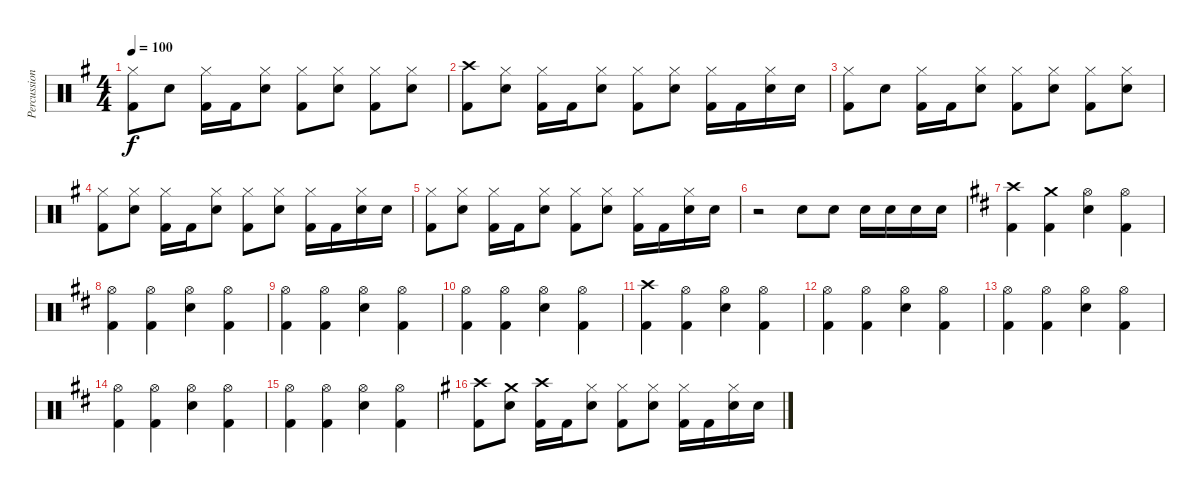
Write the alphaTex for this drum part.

\track ("Percussion" "Percussion") {instrument percussion}
\staff {score}
\articulation defaults
\ts (4 4)
\tempo 100
\clef neutral
\ks g
("Hi-Hat (closed)" "Kick (hit) 2").8{dy f} "Snare (hit) 2".8 ("Hi-Hat (closed)" "Kick (hit) 2").16 "Kick (hit) 2".16 ("Hi-Hat (closed)" "Snare (hit) 2").8 ("Hi-Hat (closed)" "Kick (hit) 2").8 ("Hi-Hat (closed)" "Snare (hit) 2").8 ("Hi-Hat (closed)" "Kick (hit) 2").8 ("Hi-Hat (closed)" "Snare (hit) 2").8 |
("Crash high (hit)" "Kick (hit) 2").8 ("Hi-Hat (closed)" "Snare (hit) 2").8 ("Hi-Hat (closed)" "Kick (hit) 2").16 "Kick (hit) 2".16 ("Hi-Hat (closed)" "Snare (hit) 2").8 ("Hi-Hat (closed)" "Kick (hit) 2").8 ("Hi-Hat (closed)" "Snare (hit) 2").8 ("Hi-Hat (closed)" "Kick (hit) 2").16 "Kick (hit) 2".16 ("Hi-Hat (closed)" "Snare (hit) 2").16 "Snare (hit) 2".16 |
("Hi-Hat (closed)" "Kick (hit) 2").8 "Snare (hit) 2".8 ("Hi-Hat (closed)" "Kick (hit) 2").16 "Kick (hit) 2".16 ("Hi-Hat (closed)" "Snare (hit) 2").8 ("Hi-Hat (closed)" "Kick (hit) 2").8 ("Hi-Hat (closed)" "Snare (hit) 2").8 ("Hi-Hat (closed)" "Kick (hit) 2").8 ("Hi-Hat (closed)" "Snare (hit) 2").8 |
("Hi-Hat (closed)" "Kick (hit) 2").8 ("Hi-Hat (closed)" "Snare (hit) 2").8 ("Hi-Hat (closed)" "Kick (hit) 2").16 "Kick (hit) 2".16 ("Hi-Hat (closed)" "Snare (hit) 2").8 ("Hi-Hat (closed)" "Kick (hit) 2").8 ("Hi-Hat (closed)" "Snare (hit) 2").8 ("Hi-Hat (closed)" "Kick (hit) 2").16 "Kick (hit) 2".16 ("Hi-Hat (closed)" "Snare (hit) 2").16 "Snare (hit) 2".16 |
("Hi-Hat (closed)" "Kick (hit) 2").8 ("Hi-Hat (closed)" "Snare (hit) 2").8 ("Hi-Hat (closed)" "Kick (hit) 2").16 "Kick (hit) 2".16 ("Hi-Hat (closed)" "Snare (hit) 2").8 ("Hi-Hat (closed)" "Kick (hit) 2").8 ("Hi-Hat (closed)" "Snare (hit) 2").8 ("Hi-Hat (closed)" "Kick (hit) 2").16 "Kick (hit) 2".16 ("Hi-Hat (closed)" "Snare (hit) 2").16 "Snare (hit) 2".16 |
r.2 "Snare (hit) 2".8 "Snare (hit) 2".8 "Snare (hit) 2".16 "Snare (hit) 2".16 "Snare (hit) 2".16 "Snare (hit) 2".16 |
\ks d
("Crash high (hit)" "Kick (hit) 2").4 ("Crash medium (hit)" "Kick (hit) 2").4 ("Hi-Hat (open)" "Snare (hit) 2").4 ("Hi-Hat (open)" "Kick (hit) 2").4 |
("Hi-Hat (open)" "Kick (hit) 2").4 ("Hi-Hat (open)" "Kick (hit) 2").4 ("Hi-Hat (open)" "Snare (hit) 2").4 ("Hi-Hat (open)" "Kick (hit) 2").4 |
("Hi-Hat (open)" "Kick (hit) 2").4 ("Hi-Hat (open)" "Kick (hit) 2").4 ("Hi-Hat (open)" "Snare (hit) 2").4 ("Hi-Hat (open)" "Kick (hit) 2").4 |
("Hi-Hat (open)" "Kick (hit) 2").4 ("Hi-Hat (open)" "Kick (hit) 2").4 ("Hi-Hat (open)" "Snare (hit) 2").4 ("Hi-Hat (open)" "Kick (hit) 2").4 |
("Crash high (hit)" "Kick (hit) 2").4 ("Hi-Hat (open)" "Kick (hit) 2").4 ("Hi-Hat (open)" "Snare (hit) 2").4 ("Hi-Hat (open)" "Kick (hit) 2").4 |
("Hi-Hat (open)" "Kick (hit) 2").4 ("Hi-Hat (open)" "Kick (hit) 2").4 ("Hi-Hat (open)" "Snare (hit) 2").4 ("Hi-Hat (open)" "Kick (hit) 2").4 |
("Hi-Hat (open)" "Kick (hit) 2").4 ("Hi-Hat (open)" "Kick (hit) 2").4 ("Hi-Hat (open)" "Snare (hit) 2").4 ("Hi-Hat (open)" "Kick (hit) 2").4 |
("Hi-Hat (open)" "Kick (hit) 2").4 ("Hi-Hat (open)" "Kick (hit) 2").4 ("Hi-Hat (open)" "Snare (hit) 2").4 ("Hi-Hat (open)" "Kick (hit) 2").4 |
("Hi-Hat (open)" "Kick (hit) 2").4 ("Hi-Hat (open)" "Kick (hit) 2").4 ("Hi-Hat (open)" "Snare (hit) 2").4 ("Hi-Hat (open)" "Kick (hit) 2").4 |
\ks g
("Crash high (hit)" "Kick (hit) 2").8 ("Crash medium (hit)" "Snare (hit) 2").8 ("Crash high (hit)" "Kick (hit) 2").16 "Kick (hit) 2".16 ("Hi-Hat (closed)" "Snare (hit) 2").8 ("Hi-Hat (closed)" "Kick (hit) 2").8 ("Hi-Hat (closed)" "Snare (hit) 2").8 ("Hi-Hat (closed)" "Kick (hit) 2").16 "Kick (hit) 2".16 ("Hi-Hat (closed)" "Snare (hit) 2").16 "Snare (hit) 2".16
